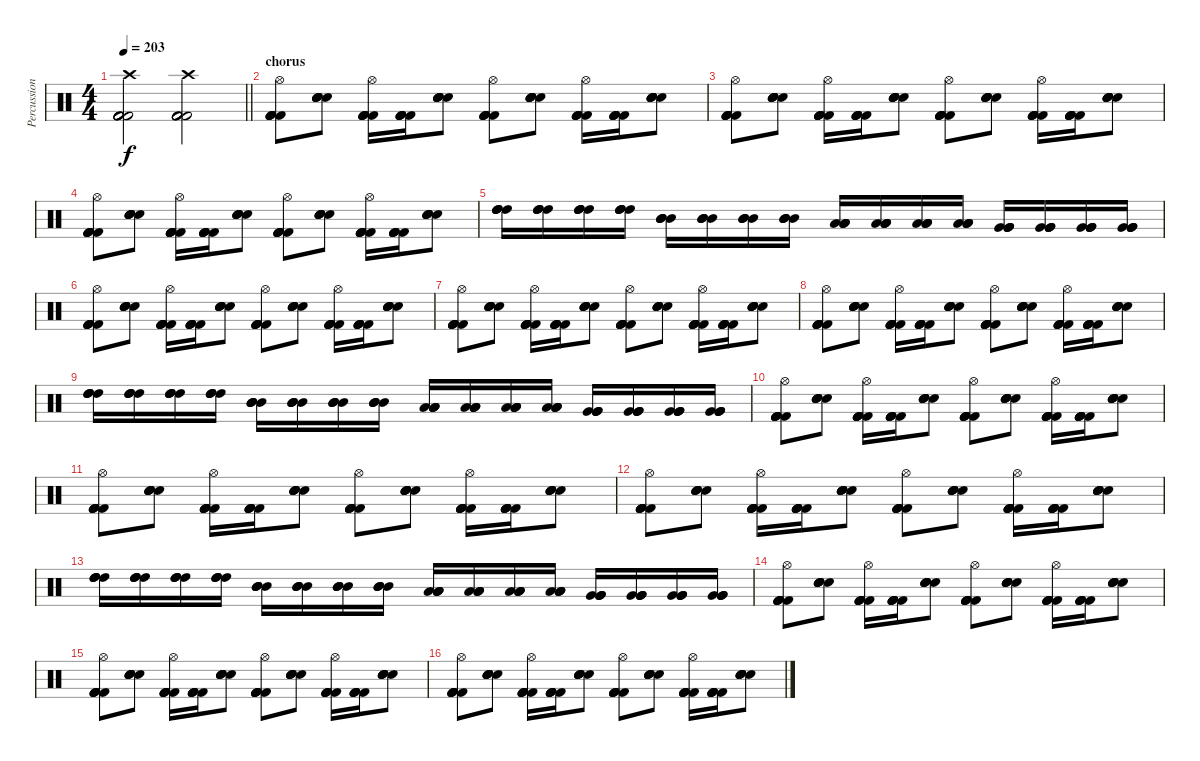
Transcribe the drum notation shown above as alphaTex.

\track ("Percussion" "Percussion") {instrument percussion}
\staff {score}
\articulation defaults
\ts (4 4)
\tempo 203
\clef neutral
\barLineRight lightlight
\ks c
("Kick (hit) 2" "Kick (hit) 2" "Kick (hit) 2" "Kick (hit) 2" "Kick (hit) 2" "Crash high (hit)").2{dy f} ("Kick (hit) 2" "Kick (hit) 2" "Kick (hit) 2" "Kick (hit) 2" "Kick (hit) 2" "Crash high (hit)").2 |
\section ("" "chorus")
("Kick (hit) 2" "Kick (hit) 2" "Kick (hit) 2" "Kick (hit) 2" "Kick (hit) 2" "Hi-Hat (open)").8 ("Electric Snare (hit)" "Electric Snare (hit)" "Electric Snare (hit)" "Electric Snare (hit)" "Electric Snare (hit)").8 ("Kick (hit) 2" "Kick (hit) 2" "Kick (hit) 2" "Kick (hit) 2" "Kick (hit) 2" "Hi-Hat (open)").16 ("Kick (hit) 2" "Kick (hit) 2" "Kick (hit) 2" "Kick (hit) 2" "Kick (hit) 2").16 ("Electric Snare (hit)" "Electric Snare (hit)" "Electric Snare (hit)" "Electric Snare (hit)" "Electric Snare (hit)").8 ("Kick (hit) 2" "Kick (hit) 2" "Kick (hit) 2" "Kick (hit) 2" "Kick (hit) 2" "Hi-Hat (open)").8 ("Electric Snare (hit)" "Electric Snare (hit)" "Electric Snare (hit)" "Electric Snare (hit)" "Electric Snare (hit)").8 ("Kick (hit) 2" "Kick (hit) 2" "Kick (hit) 2" "Kick (hit) 2" "Kick (hit) 2" "Hi-Hat (open)").16 ("Kick (hit) 2" "Kick (hit) 2" "Kick (hit) 2" "Kick (hit) 2" "Kick (hit) 2").16 ("Electric Snare (hit)" "Electric Snare (hit)" "Electric Snare (hit)" "Electric Snare (hit)" "Electric Snare (hit)").8 |
("Kick (hit) 2" "Kick (hit) 2" "Kick (hit) 2" "Kick (hit) 2" "Kick (hit) 2" "Hi-Hat (open)").8 ("Electric Snare (hit)" "Electric Snare (hit)" "Electric Snare (hit)" "Electric Snare (hit)" "Electric Snare (hit)").8 ("Kick (hit) 2" "Kick (hit) 2" "Kick (hit) 2" "Kick (hit) 2" "Kick (hit) 2" "Hi-Hat (open)").16 ("Kick (hit) 2" "Kick (hit) 2" "Kick (hit) 2" "Kick (hit) 2" "Kick (hit) 2").16 ("Electric Snare (hit)" "Electric Snare (hit)" "Electric Snare (hit)" "Electric Snare (hit)" "Electric Snare (hit)").8 ("Kick (hit) 2" "Kick (hit) 2" "Kick (hit) 2" "Kick (hit) 2" "Kick (hit) 2" "Hi-Hat (open)").8 ("Electric Snare (hit)" "Electric Snare (hit)" "Electric Snare (hit)" "Electric Snare (hit)" "Electric Snare (hit)").8 ("Kick (hit) 2" "Kick (hit) 2" "Kick (hit) 2" "Kick (hit) 2" "Kick (hit) 2" "Hi-Hat (open)").16 ("Kick (hit) 2" "Kick (hit) 2" "Kick (hit) 2" "Kick (hit) 2" "Kick (hit) 2").16 ("Electric Snare (hit)" "Electric Snare (hit)" "Electric Snare (hit)" "Electric Snare (hit)" "Electric Snare (hit)").8 |
("Kick (hit) 2" "Kick (hit) 2" "Kick (hit) 2" "Kick (hit) 2" "Kick (hit) 2" "Hi-Hat (open)").8 ("Electric Snare (hit)" "Electric Snare (hit)" "Electric Snare (hit)" "Electric Snare (hit)" "Electric Snare (hit)").8 ("Kick (hit) 2" "Kick (hit) 2" "Kick (hit) 2" "Kick (hit) 2" "Kick (hit) 2" "Hi-Hat (open)").16 ("Kick (hit) 2" "Kick (hit) 2" "Kick (hit) 2" "Kick (hit) 2" "Kick (hit) 2").16 ("Electric Snare (hit)" "Electric Snare (hit)" "Electric Snare (hit)" "Electric Snare (hit)" "Electric Snare (hit)").8 ("Kick (hit) 2" "Kick (hit) 2" "Kick (hit) 2" "Kick (hit) 2" "Kick (hit) 2" "Hi-Hat (open)").8 ("Electric Snare (hit)" "Electric Snare (hit)" "Electric Snare (hit)" "Electric Snare (hit)" "Electric Snare (hit)").8 ("Kick (hit) 2" "Kick (hit) 2" "Kick (hit) 2" "Kick (hit) 2" "Kick (hit) 2" "Hi-Hat (open)").16 ("Kick (hit) 2" "Kick (hit) 2" "Kick (hit) 2" "Kick (hit) 2" "Kick (hit) 2").16 ("Electric Snare (hit)" "Electric Snare (hit)" "Electric Snare (hit)" "Electric Snare (hit)" "Electric Snare (hit)").8 |
("High Tom (hit)" "High Tom (hit)" "High Tom (hit)" "High Tom (hit)").16 ("High Tom (hit)" "High Tom (hit)" "High Tom (hit)" "High Tom (hit)").16 ("High Tom (hit)" "High Tom (hit)" "High Tom (hit)" "High Tom (hit)").16 ("High Tom (hit)" "High Tom (hit)" "High Tom (hit)" "High Tom (hit)").16 ("Mid Tom (hit)" "Mid Tom (hit)" "Mid Tom (hit)" "Mid Tom (hit)").16 ("Mid Tom (hit)" "Mid Tom (hit)" "Mid Tom (hit)" "Mid Tom (hit)").16 ("Mid Tom (hit)" "Mid Tom (hit)" "Mid Tom (hit)" "Mid Tom (hit)").16 ("Mid Tom (hit)" "Mid Tom (hit)" "Mid Tom (hit)" "Mid Tom (hit)").16 ("Low Tom (hit)" "Low Tom (hit)" "Low Tom (hit)" "Low Tom (hit)").16 ("Low Tom (hit)" "Low Tom (hit)" "Low Tom (hit)" "Low Tom (hit)").16 ("Low Tom (hit)" "Low Tom (hit)" "Low Tom (hit)" "Low Tom (hit)").16 ("Low Tom (hit)" "Low Tom (hit)" "Low Tom (hit)" "Low Tom (hit)").16 ("Very Low Tom (hit)" "Very Low Tom (hit)" "Very Low Tom (hit)" "Very Low Tom (hit)").16 ("Very Low Tom (hit)" "Very Low Tom (hit)" "Very Low Tom (hit)" "Very Low Tom (hit)").16 ("Very Low Tom (hit)" "Very Low Tom (hit)" "Very Low Tom (hit)" "Very Low Tom (hit)").16 ("Very Low Tom (hit)" "Very Low Tom (hit)" "Very Low Tom (hit)" "Very Low Tom (hit)").16 |
("Kick (hit) 2" "Kick (hit) 2" "Kick (hit) 2" "Kick (hit) 2" "Kick (hit) 2" "Hi-Hat (open)").8 ("Electric Snare (hit)" "Electric Snare (hit)" "Electric Snare (hit)" "Electric Snare (hit)" "Electric Snare (hit)").8 ("Kick (hit) 2" "Kick (hit) 2" "Kick (hit) 2" "Kick (hit) 2" "Kick (hit) 2" "Hi-Hat (open)").16 ("Kick (hit) 2" "Kick (hit) 2" "Kick (hit) 2" "Kick (hit) 2" "Kick (hit) 2").16 ("Electric Snare (hit)" "Electric Snare (hit)" "Electric Snare (hit)" "Electric Snare (hit)" "Electric Snare (hit)").8 ("Kick (hit) 2" "Kick (hit) 2" "Kick (hit) 2" "Kick (hit) 2" "Kick (hit) 2" "Hi-Hat (open)").8 ("Electric Snare (hit)" "Electric Snare (hit)" "Electric Snare (hit)" "Electric Snare (hit)" "Electric Snare (hit)").8 ("Kick (hit) 2" "Kick (hit) 2" "Kick (hit) 2" "Kick (hit) 2" "Kick (hit) 2" "Hi-Hat (open)").16 ("Kick (hit) 2" "Kick (hit) 2" "Kick (hit) 2" "Kick (hit) 2" "Kick (hit) 2").16 ("Electric Snare (hit)" "Electric Snare (hit)" "Electric Snare (hit)" "Electric Snare (hit)" "Electric Snare (hit)").8 |
("Kick (hit) 2" "Kick (hit) 2" "Kick (hit) 2" "Kick (hit) 2" "Kick (hit) 2" "Hi-Hat (open)").8 ("Electric Snare (hit)" "Electric Snare (hit)" "Electric Snare (hit)" "Electric Snare (hit)" "Electric Snare (hit)").8 ("Kick (hit) 2" "Kick (hit) 2" "Kick (hit) 2" "Kick (hit) 2" "Kick (hit) 2" "Hi-Hat (open)").16 ("Kick (hit) 2" "Kick (hit) 2" "Kick (hit) 2" "Kick (hit) 2" "Kick (hit) 2").16 ("Electric Snare (hit)" "Electric Snare (hit)" "Electric Snare (hit)" "Electric Snare (hit)" "Electric Snare (hit)").8 ("Kick (hit) 2" "Kick (hit) 2" "Kick (hit) 2" "Kick (hit) 2" "Kick (hit) 2" "Hi-Hat (open)").8 ("Electric Snare (hit)" "Electric Snare (hit)" "Electric Snare (hit)" "Electric Snare (hit)" "Electric Snare (hit)").8 ("Kick (hit) 2" "Kick (hit) 2" "Kick (hit) 2" "Kick (hit) 2" "Kick (hit) 2" "Hi-Hat (open)").16 ("Kick (hit) 2" "Kick (hit) 2" "Kick (hit) 2" "Kick (hit) 2" "Kick (hit) 2").16 ("Electric Snare (hit)" "Electric Snare (hit)" "Electric Snare (hit)" "Electric Snare (hit)" "Electric Snare (hit)").8 |
("Kick (hit) 2" "Kick (hit) 2" "Kick (hit) 2" "Kick (hit) 2" "Kick (hit) 2" "Hi-Hat (open)").8 ("Electric Snare (hit)" "Electric Snare (hit)" "Electric Snare (hit)" "Electric Snare (hit)" "Electric Snare (hit)").8 ("Kick (hit) 2" "Kick (hit) 2" "Kick (hit) 2" "Kick (hit) 2" "Kick (hit) 2" "Hi-Hat (open)").16 ("Kick (hit) 2" "Kick (hit) 2" "Kick (hit) 2" "Kick (hit) 2" "Kick (hit) 2").16 ("Electric Snare (hit)" "Electric Snare (hit)" "Electric Snare (hit)" "Electric Snare (hit)" "Electric Snare (hit)").8 ("Kick (hit) 2" "Kick (hit) 2" "Kick (hit) 2" "Kick (hit) 2" "Kick (hit) 2" "Hi-Hat (open)").8 ("Electric Snare (hit)" "Electric Snare (hit)" "Electric Snare (hit)" "Electric Snare (hit)" "Electric Snare (hit)").8 ("Kick (hit) 2" "Kick (hit) 2" "Kick (hit) 2" "Kick (hit) 2" "Kick (hit) 2" "Hi-Hat (open)").16 ("Kick (hit) 2" "Kick (hit) 2" "Kick (hit) 2" "Kick (hit) 2" "Kick (hit) 2").16 ("Electric Snare (hit)" "Electric Snare (hit)" "Electric Snare (hit)" "Electric Snare (hit)" "Electric Snare (hit)").8 |
("High Tom (hit)" "High Tom (hit)" "High Tom (hit)" "High Tom (hit)").16 ("High Tom (hit)" "High Tom (hit)" "High Tom (hit)" "High Tom (hit)").16 ("High Tom (hit)" "High Tom (hit)" "High Tom (hit)" "High Tom (hit)").16 ("High Tom (hit)" "High Tom (hit)" "High Tom (hit)" "High Tom (hit)").16 ("Mid Tom (hit)" "Mid Tom (hit)" "Mid Tom (hit)" "Mid Tom (hit)").16 ("Mid Tom (hit)" "Mid Tom (hit)" "Mid Tom (hit)" "Mid Tom (hit)").16 ("Mid Tom (hit)" "Mid Tom (hit)" "Mid Tom (hit)" "Mid Tom (hit)").16 ("Mid Tom (hit)" "Mid Tom (hit)" "Mid Tom (hit)" "Mid Tom (hit)").16 ("Low Tom (hit)" "Low Tom (hit)" "Low Tom (hit)" "Low Tom (hit)").16 ("Low Tom (hit)" "Low Tom (hit)" "Low Tom (hit)" "Low Tom (hit)").16 ("Low Tom (hit)" "Low Tom (hit)" "Low Tom (hit)" "Low Tom (hit)").16 ("Low Tom (hit)" "Low Tom (hit)" "Low Tom (hit)" "Low Tom (hit)").16 ("Very Low Tom (hit)" "Very Low Tom (hit)" "Very Low Tom (hit)" "Very Low Tom (hit)").16 ("Very Low Tom (hit)" "Very Low Tom (hit)" "Very Low Tom (hit)" "Very Low Tom (hit)").16 ("Very Low Tom (hit)" "Very Low Tom (hit)" "Very Low Tom (hit)" "Very Low Tom (hit)").16 ("Very Low Tom (hit)" "Very Low Tom (hit)" "Very Low Tom (hit)" "Very Low Tom (hit)").16 |
("Kick (hit) 2" "Kick (hit) 2" "Kick (hit) 2" "Kick (hit) 2" "Kick (hit) 2" "Hi-Hat (open)").8 ("Electric Snare (hit)" "Electric Snare (hit)" "Electric Snare (hit)" "Electric Snare (hit)" "Electric Snare (hit)").8 ("Kick (hit) 2" "Kick (hit) 2" "Kick (hit) 2" "Kick (hit) 2" "Kick (hit) 2" "Hi-Hat (open)").16 ("Kick (hit) 2" "Kick (hit) 2" "Kick (hit) 2" "Kick (hit) 2" "Kick (hit) 2").16 ("Electric Snare (hit)" "Electric Snare (hit)" "Electric Snare (hit)" "Electric Snare (hit)" "Electric Snare (hit)").8 ("Kick (hit) 2" "Kick (hit) 2" "Kick (hit) 2" "Kick (hit) 2" "Kick (hit) 2" "Hi-Hat (open)").8 ("Electric Snare (hit)" "Electric Snare (hit)" "Electric Snare (hit)" "Electric Snare (hit)" "Electric Snare (hit)").8 ("Kick (hit) 2" "Kick (hit) 2" "Kick (hit) 2" "Kick (hit) 2" "Kick (hit) 2" "Hi-Hat (open)").16 ("Kick (hit) 2" "Kick (hit) 2" "Kick (hit) 2" "Kick (hit) 2" "Kick (hit) 2").16 ("Electric Snare (hit)" "Electric Snare (hit)" "Electric Snare (hit)" "Electric Snare (hit)" "Electric Snare (hit)").8 |
("Kick (hit) 2" "Kick (hit) 2" "Kick (hit) 2" "Kick (hit) 2" "Kick (hit) 2" "Hi-Hat (open)").8 ("Electric Snare (hit)" "Electric Snare (hit)" "Electric Snare (hit)" "Electric Snare (hit)" "Electric Snare (hit)").8 ("Kick (hit) 2" "Kick (hit) 2" "Kick (hit) 2" "Kick (hit) 2" "Kick (hit) 2" "Hi-Hat (open)").16 ("Kick (hit) 2" "Kick (hit) 2" "Kick (hit) 2" "Kick (hit) 2" "Kick (hit) 2").16 ("Electric Snare (hit)" "Electric Snare (hit)" "Electric Snare (hit)" "Electric Snare (hit)" "Electric Snare (hit)").8 ("Kick (hit) 2" "Kick (hit) 2" "Kick (hit) 2" "Kick (hit) 2" "Kick (hit) 2" "Hi-Hat (open)").8 ("Electric Snare (hit)" "Electric Snare (hit)" "Electric Snare (hit)" "Electric Snare (hit)" "Electric Snare (hit)").8 ("Kick (hit) 2" "Kick (hit) 2" "Kick (hit) 2" "Kick (hit) 2" "Kick (hit) 2" "Hi-Hat (open)").16 ("Kick (hit) 2" "Kick (hit) 2" "Kick (hit) 2" "Kick (hit) 2" "Kick (hit) 2").16 ("Electric Snare (hit)" "Electric Snare (hit)" "Electric Snare (hit)" "Electric Snare (hit)" "Electric Snare (hit)").8 |
("Kick (hit) 2" "Kick (hit) 2" "Kick (hit) 2" "Kick (hit) 2" "Kick (hit) 2" "Hi-Hat (open)").8 ("Electric Snare (hit)" "Electric Snare (hit)" "Electric Snare (hit)" "Electric Snare (hit)" "Electric Snare (hit)").8 ("Kick (hit) 2" "Kick (hit) 2" "Kick (hit) 2" "Kick (hit) 2" "Kick (hit) 2" "Hi-Hat (open)").16 ("Kick (hit) 2" "Kick (hit) 2" "Kick (hit) 2" "Kick (hit) 2" "Kick (hit) 2").16 ("Electric Snare (hit)" "Electric Snare (hit)" "Electric Snare (hit)" "Electric Snare (hit)" "Electric Snare (hit)").8 ("Kick (hit) 2" "Kick (hit) 2" "Kick (hit) 2" "Kick (hit) 2" "Kick (hit) 2" "Hi-Hat (open)").8 ("Electric Snare (hit)" "Electric Snare (hit)" "Electric Snare (hit)" "Electric Snare (hit)" "Electric Snare (hit)").8 ("Kick (hit) 2" "Kick (hit) 2" "Kick (hit) 2" "Kick (hit) 2" "Kick (hit) 2" "Hi-Hat (open)").16 ("Kick (hit) 2" "Kick (hit) 2" "Kick (hit) 2" "Kick (hit) 2" "Kick (hit) 2").16 ("Electric Snare (hit)" "Electric Snare (hit)" "Electric Snare (hit)" "Electric Snare (hit)" "Electric Snare (hit)").8 |
("High Tom (hit)" "High Tom (hit)" "High Tom (hit)" "High Tom (hit)").16 ("High Tom (hit)" "High Tom (hit)" "High Tom (hit)" "High Tom (hit)").16 ("High Tom (hit)" "High Tom (hit)" "High Tom (hit)" "High Tom (hit)").16 ("High Tom (hit)" "High Tom (hit)" "High Tom (hit)" "High Tom (hit)").16 ("Mid Tom (hit)" "Mid Tom (hit)" "Mid Tom (hit)" "Mid Tom (hit)").16 ("Mid Tom (hit)" "Mid Tom (hit)" "Mid Tom (hit)" "Mid Tom (hit)").16 ("Mid Tom (hit)" "Mid Tom (hit)" "Mid Tom (hit)" "Mid Tom (hit)").16 ("Mid Tom (hit)" "Mid Tom (hit)" "Mid Tom (hit)" "Mid Tom (hit)").16 ("Low Tom (hit)" "Low Tom (hit)" "Low Tom (hit)" "Low Tom (hit)").16 ("Low Tom (hit)" "Low Tom (hit)" "Low Tom (hit)" "Low Tom (hit)").16 ("Low Tom (hit)" "Low Tom (hit)" "Low Tom (hit)" "Low Tom (hit)").16 ("Low Tom (hit)" "Low Tom (hit)" "Low Tom (hit)" "Low Tom (hit)").16 ("Very Low Tom (hit)" "Very Low Tom (hit)" "Very Low Tom (hit)" "Very Low Tom (hit)").16 ("Very Low Tom (hit)" "Very Low Tom (hit)" "Very Low Tom (hit)" "Very Low Tom (hit)").16 ("Very Low Tom (hit)" "Very Low Tom (hit)" "Very Low Tom (hit)" "Very Low Tom (hit)").16 ("Very Low Tom (hit)" "Very Low Tom (hit)" "Very Low Tom (hit)" "Very Low Tom (hit)").16 |
("Kick (hit) 2" "Kick (hit) 2" "Kick (hit) 2" "Kick (hit) 2" "Kick (hit) 2" "Hi-Hat (open)").8 ("Electric Snare (hit)" "Electric Snare (hit)" "Electric Snare (hit)" "Electric Snare (hit)" "Electric Snare (hit)").8 ("Kick (hit) 2" "Kick (hit) 2" "Kick (hit) 2" "Kick (hit) 2" "Kick (hit) 2" "Hi-Hat (open)").16 ("Kick (hit) 2" "Kick (hit) 2" "Kick (hit) 2" "Kick (hit) 2" "Kick (hit) 2").16 ("Electric Snare (hit)" "Electric Snare (hit)" "Electric Snare (hit)" "Electric Snare (hit)" "Electric Snare (hit)").8 ("Kick (hit) 2" "Kick (hit) 2" "Kick (hit) 2" "Kick (hit) 2" "Kick (hit) 2" "Hi-Hat (open)").8 ("Electric Snare (hit)" "Electric Snare (hit)" "Electric Snare (hit)" "Electric Snare (hit)" "Electric Snare (hit)").8 ("Kick (hit) 2" "Kick (hit) 2" "Kick (hit) 2" "Kick (hit) 2" "Kick (hit) 2" "Hi-Hat (open)").16 ("Kick (hit) 2" "Kick (hit) 2" "Kick (hit) 2" "Kick (hit) 2" "Kick (hit) 2").16 ("Electric Snare (hit)" "Electric Snare (hit)" "Electric Snare (hit)" "Electric Snare (hit)" "Electric Snare (hit)").8 |
("Kick (hit) 2" "Kick (hit) 2" "Kick (hit) 2" "Kick (hit) 2" "Kick (hit) 2" "Hi-Hat (open)").8 ("Electric Snare (hit)" "Electric Snare (hit)" "Electric Snare (hit)" "Electric Snare (hit)" "Electric Snare (hit)").8 ("Kick (hit) 2" "Kick (hit) 2" "Kick (hit) 2" "Kick (hit) 2" "Kick (hit) 2" "Hi-Hat (open)").16 ("Kick (hit) 2" "Kick (hit) 2" "Kick (hit) 2" "Kick (hit) 2" "Kick (hit) 2").16 ("Electric Snare (hit)" "Electric Snare (hit)" "Electric Snare (hit)" "Electric Snare (hit)" "Electric Snare (hit)").8 ("Kick (hit) 2" "Kick (hit) 2" "Kick (hit) 2" "Kick (hit) 2" "Kick (hit) 2" "Hi-Hat (open)").8 ("Electric Snare (hit)" "Electric Snare (hit)" "Electric Snare (hit)" "Electric Snare (hit)" "Electric Snare (hit)").8 ("Kick (hit) 2" "Kick (hit) 2" "Kick (hit) 2" "Kick (hit) 2" "Kick (hit) 2" "Hi-Hat (open)").16 ("Kick (hit) 2" "Kick (hit) 2" "Kick (hit) 2" "Kick (hit) 2" "Kick (hit) 2").16 ("Electric Snare (hit)" "Electric Snare (hit)" "Electric Snare (hit)" "Electric Snare (hit)" "Electric Snare (hit)").8 |
("Kick (hit) 2" "Kick (hit) 2" "Kick (hit) 2" "Kick (hit) 2" "Kick (hit) 2" "Hi-Hat (open)").8 ("Electric Snare (hit)" "Electric Snare (hit)" "Electric Snare (hit)" "Electric Snare (hit)" "Electric Snare (hit)").8 ("Kick (hit) 2" "Kick (hit) 2" "Kick (hit) 2" "Kick (hit) 2" "Kick (hit) 2" "Hi-Hat (open)").16 ("Kick (hit) 2" "Kick (hit) 2" "Kick (hit) 2" "Kick (hit) 2" "Kick (hit) 2").16 ("Electric Snare (hit)" "Electric Snare (hit)" "Electric Snare (hit)" "Electric Snare (hit)" "Electric Snare (hit)").8 ("Kick (hit) 2" "Kick (hit) 2" "Kick (hit) 2" "Kick (hit) 2" "Kick (hit) 2" "Hi-Hat (open)").8 ("Electric Snare (hit)" "Electric Snare (hit)" "Electric Snare (hit)" "Electric Snare (hit)" "Electric Snare (hit)").8 ("Kick (hit) 2" "Kick (hit) 2" "Kick (hit) 2" "Kick (hit) 2" "Kick (hit) 2" "Hi-Hat (open)").16 ("Kick (hit) 2" "Kick (hit) 2" "Kick (hit) 2" "Kick (hit) 2" "Kick (hit) 2").16 ("Electric Snare (hit)" "Electric Snare (hit)" "Electric Snare (hit)" "Electric Snare (hit)" "Electric Snare (hit)").8
